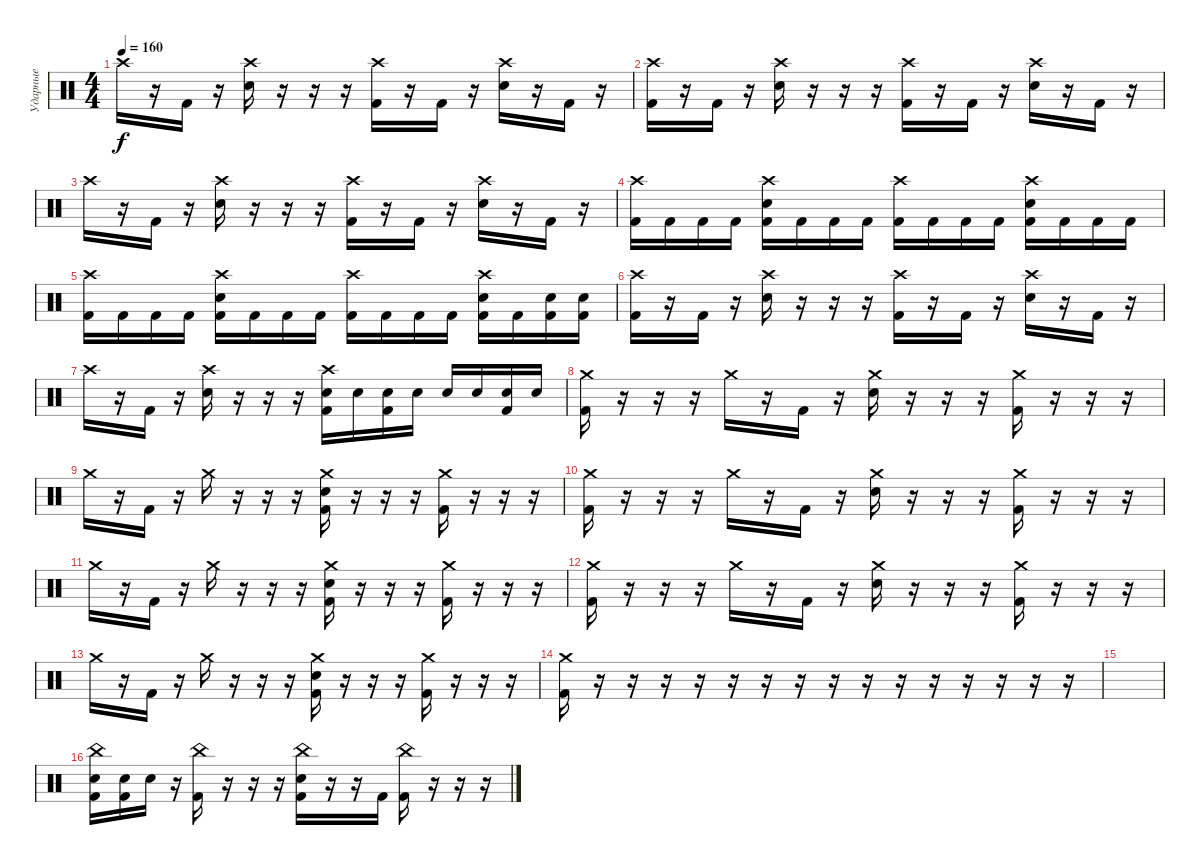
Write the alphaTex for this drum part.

\track ("Ударные" "Ударные") {instrument percussion}
\staff {score}
\articulation defaults
\ts (4 4)
\tempo 160
\clef neutral
\ks c "Crash high (hit)".16{dy f}
r.16 "Kick (hit) 2".16 r.16 ("Crash high (hit)" "Electric Snare (hit)").16 r.16 r.16 r.16 ("Crash high (hit)" "Kick (hit) 2").16 r.16 "Kick (hit) 2".16 r.16 ("Crash high (hit)" "Electric Snare (hit)").16 r.16 "Kick (hit) 2".16 r.16 |
("Crash high (hit)" "Kick (hit) 2").16 r.16 "Kick (hit) 2".16 r.16 ("Crash high (hit)" "Electric Snare (hit)").16 r.16 r.16 r.16 ("Crash high (hit)" "Kick (hit) 2").16 r.16 "Kick (hit) 2".16 r.16 ("Crash high (hit)" "Electric Snare (hit)").16 r.16 "Kick (hit) 2".16 r.16 |
"Crash high (hit)".16 r.16 "Kick (hit) 2".16 r.16 ("Crash high (hit)" "Electric Snare (hit)").16 r.16 r.16 r.16 ("Crash high (hit)" "Kick (hit) 2").16 r.16 "Kick (hit) 2".16 r.16 ("Crash high (hit)" "Electric Snare (hit)").16 r.16 "Kick (hit) 2".16 r.16 |
("Crash high (hit)" "Kick (hit) 2").16 "Kick (hit) 2".16 "Kick (hit) 2".16 "Kick (hit) 2".16 ("Crash high (hit)" "Electric Snare (hit)" "Kick (hit) 2").16 "Kick (hit) 2".16 "Kick (hit) 2".16 "Kick (hit) 2".16 ("Crash high (hit)" "Kick (hit) 2").16 "Kick (hit) 2".16 "Kick (hit) 2".16 "Kick (hit) 2".16 ("Crash high (hit)" "Electric Snare (hit)" "Kick (hit) 2").16 "Kick (hit) 2".16 "Kick (hit) 2".16 "Kick (hit) 2".16 |
("Crash high (hit)" "Kick (hit) 2").16 "Kick (hit) 2".16 "Kick (hit) 2".16 "Kick (hit) 2".16 ("Crash high (hit)" "Electric Snare (hit)" "Kick (hit) 2").16 "Kick (hit) 2".16 "Kick (hit) 2".16 "Kick (hit) 2".16 ("Crash high (hit)" "Kick (hit) 2").16 "Kick (hit) 2".16 "Kick (hit) 2".16 "Kick (hit) 2".16 ("Crash high (hit)" "Electric Snare (hit)" "Kick (hit) 2").16 "Kick (hit) 2".16 ("Electric Snare (hit)" "Kick (hit) 2").16 ("Electric Snare (hit)" "Kick (hit) 2").16 |
("Crash high (hit)" "Kick (hit) 2").16 r.16 "Kick (hit) 2".16 r.16 ("Crash high (hit)" "Electric Snare (hit)").16 r.16 r.16 r.16 ("Crash high (hit)" "Kick (hit) 2").16 r.16 "Kick (hit) 2".16 r.16 ("Crash high (hit)" "Electric Snare (hit)").16 r.16 "Kick (hit) 2".16 r.16 |
"Crash high (hit)".16 r.16 "Kick (hit) 2".16 r.16 ("Crash high (hit)" "Electric Snare (hit)").16 r.16 r.16 r.16 ("Crash high (hit)" "Electric Snare (hit)" "Kick (hit) 2").16 "Electric Snare (hit)".16 ("Electric Snare (hit)" "Kick (hit) 2").16 "Electric Snare (hit)".16 "Electric Snare (hit)".16 "Electric Snare (hit)".16 ("Electric Snare (hit)" "Kick (hit) 2").16 "Electric Snare (hit)".16 |
("Crash medium (hit)" "Kick (hit) 2").16 r.16 r.16 r.16 "Crash medium (hit)".16 r.16 "Kick (hit) 2".16 r.16 ("Crash medium (hit)" "Electric Snare (hit)").16 r.16 r.16 r.16 ("Crash medium (hit)" "Kick (hit) 2").16 r.16 r.16 r.16 |
"Crash medium (hit)".16 r.16 "Kick (hit) 2".16 r.16 "Crash medium (hit)".16 r.16 r.16 r.16 ("Crash medium (hit)" "Electric Snare (hit)" "Kick (hit) 2").16 r.16 r.16 r.16 ("Crash medium (hit)" "Kick (hit) 2").16 r.16 r.16 r.16 |
("Crash medium (hit)" "Kick (hit) 2").16 r.16 r.16 r.16 "Crash medium (hit)".16 r.16 "Kick (hit) 2".16 r.16 ("Crash medium (hit)" "Electric Snare (hit)").16 r.16 r.16 r.16 ("Crash medium (hit)" "Kick (hit) 2").16 r.16 r.16 r.16 |
"Crash medium (hit)".16 r.16 "Kick (hit) 2".16 r.16 "Crash medium (hit)".16 r.16 r.16 r.16 ("Crash medium (hit)" "Electric Snare (hit)" "Kick (hit) 2").16 r.16 r.16 r.16 ("Crash medium (hit)" "Kick (hit) 2").16 r.16 r.16 r.16 |
("Crash medium (hit)" "Kick (hit) 2").16 r.16 r.16 r.16 "Crash medium (hit)".16 r.16 "Kick (hit) 2".16 r.16 ("Crash medium (hit)" "Electric Snare (hit)").16 r.16 r.16 r.16 ("Crash medium (hit)" "Kick (hit) 2").16 r.16 r.16 r.16 |
"Crash medium (hit)".16 r.16 "Kick (hit) 2".16 r.16 "Crash medium (hit)".16 r.16 r.16 r.16 ("Crash medium (hit)" "Electric Snare (hit)" "Kick (hit) 2").16 r.16 r.16 r.16 ("Crash medium (hit)" "Kick (hit) 2").16 r.16 r.16 r.16 |
("Crash medium (hit)" "Kick (hit) 2").16 r.16 r.16 r.16 r.16 r.16 r.16 r.16 r.16 r.16 r.16 r.16 r.16 r.16 r.16 r.16 |
|
("China (hit)" "Electric Snare (hit)" "Kick (hit) 2").16 ("Electric Snare (hit)" "Kick (hit) 2").16 "Electric Snare (hit)".16 r.16 ("China (hit)" "Kick (hit) 2").16 r.16 r.16 r.16 ("China (hit)" "Electric Snare (hit)" "Kick (hit) 2").16 r.16 r.16 "Kick (hit) 2".16 ("China (hit)" "Kick (hit) 2").16 r.16 r.16 r.16
